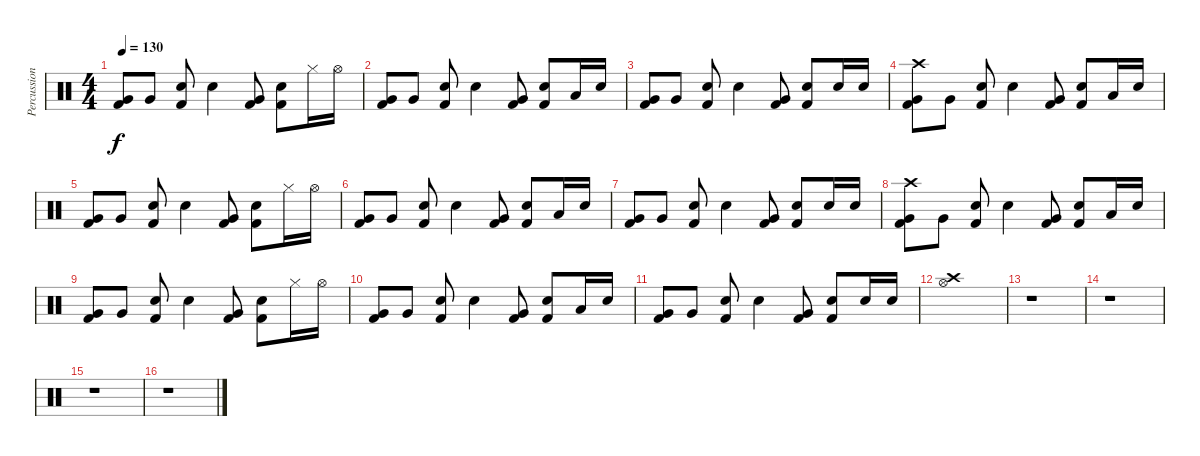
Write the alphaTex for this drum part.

\track ("Percussion" "Percussion") {instrument percussion}
\staff {score}
\articulation defaults
\ts (4 4)
\tempo 130
\clef neutral
\ks c
("Very Low Tom (hit)" "Kick (hit) 2").8{dy f} "Very Low Tom (hit)".8 ("Electric Snare (hit)" "Kick (hit) 2").8 "Electric Snare (hit)".4 ("Very Low Tom (hit)" "Kick (hit) 2").8 ("Electric Snare (hit)" "Kick (hit) 2").8 "Hi-Hat (closed)".16 "Hi-Hat (open)".16 |
("Very Low Tom (hit)" "Kick (hit) 2").8 "Very Low Tom (hit)".8 ("Electric Snare (hit)" "Kick (hit) 2").8 "Electric Snare (hit)".4 ("Very Low Tom (hit)" "Kick (hit) 2").8 ("Electric Snare (hit)" "Kick (hit) 2").8 "Low Floor Tom (hit)".16 "Electric Snare (hit)".16 |
("Very Low Tom (hit)" "Kick (hit) 2").8 "Very Low Tom (hit)".8 ("Electric Snare (hit)" "Kick (hit) 2").8 "Electric Snare (hit)".4 ("Very Low Tom (hit)" "Kick (hit) 2").8 ("Electric Snare (hit)" "Kick (hit) 2").8 "Electric Snare (hit)".16 "Electric Snare (hit)".16 |
("Crash high (hit)" "Very Low Tom (hit)" "Kick (hit) 2").8{volume 16} "Very Low Tom (hit)".8 ("Electric Snare (hit)" "Kick (hit) 2").8 "Electric Snare (hit)".4 ("Very Low Tom (hit)" "Kick (hit) 2").8 ("Electric Snare (hit)" "Kick (hit) 2").8 "Low Floor Tom (hit)".16 "Electric Snare (hit)".16 |
("Very Low Tom (hit)" "Kick (hit) 2").8 "Very Low Tom (hit)".8 ("Electric Snare (hit)" "Kick (hit) 2").8 "Electric Snare (hit)".4 ("Very Low Tom (hit)" "Kick (hit) 2").8 ("Electric Snare (hit)" "Kick (hit) 2").8 "Hi-Hat (closed)".16 "Hi-Hat (open)".16 |
("Very Low Tom (hit)" "Kick (hit) 2").8 "Very Low Tom (hit)".8 ("Electric Snare (hit)" "Kick (hit) 2").8 "Electric Snare (hit)".4 ("Very Low Tom (hit)" "Kick (hit) 2").8 ("Electric Snare (hit)" "Kick (hit) 2").8 "Low Floor Tom (hit)".16 "Electric Snare (hit)".16 |
("Very Low Tom (hit)" "Kick (hit) 2").8 "Very Low Tom (hit)".8 ("Electric Snare (hit)" "Kick (hit) 2").8 "Electric Snare (hit)".4 ("Very Low Tom (hit)" "Kick (hit) 2").8 ("Electric Snare (hit)" "Kick (hit) 2").8 "Electric Snare (hit)".16 "Electric Snare (hit)".16 |
("Crash high (hit)" "Very Low Tom (hit)" "Kick (hit) 2").8{volume 16} "Very Low Tom (hit)".8 ("Electric Snare (hit)" "Kick (hit) 2").8 "Electric Snare (hit)".4 ("Very Low Tom (hit)" "Kick (hit) 2").8 ("Electric Snare (hit)" "Kick (hit) 2").8 "Low Floor Tom (hit)".16 "Electric Snare (hit)".16 |
("Very Low Tom (hit)" "Kick (hit) 2").8 "Very Low Tom (hit)".8 ("Electric Snare (hit)" "Kick (hit) 2").8 "Electric Snare (hit)".4 ("Very Low Tom (hit)" "Kick (hit) 2").8 ("Electric Snare (hit)" "Kick (hit) 2").8 "Hi-Hat (closed)".16 "Hi-Hat (open)".16 |
("Very Low Tom (hit)" "Kick (hit) 2").8 "Very Low Tom (hit)".8 ("Electric Snare (hit)" "Kick (hit) 2").8 "Electric Snare (hit)".4 ("Very Low Tom (hit)" "Kick (hit) 2").8 ("Electric Snare (hit)" "Kick (hit) 2").8 "Low Floor Tom (hit)".16 "Electric Snare (hit)".16 |
("Very Low Tom (hit)" "Kick (hit) 2").8 "Very Low Tom (hit)".8 ("Electric Snare (hit)" "Kick (hit) 2").8 "Electric Snare (hit)".4 ("Very Low Tom (hit)" "Kick (hit) 2").8 ("Electric Snare (hit)" "Kick (hit) 2").8 "Electric Snare (hit)".16 "Electric Snare (hit)".16 |
("Hi-Hat (open)" "Crash high (hit)").1 |
r.1 |
r.1 |
r.1 |
r.1
